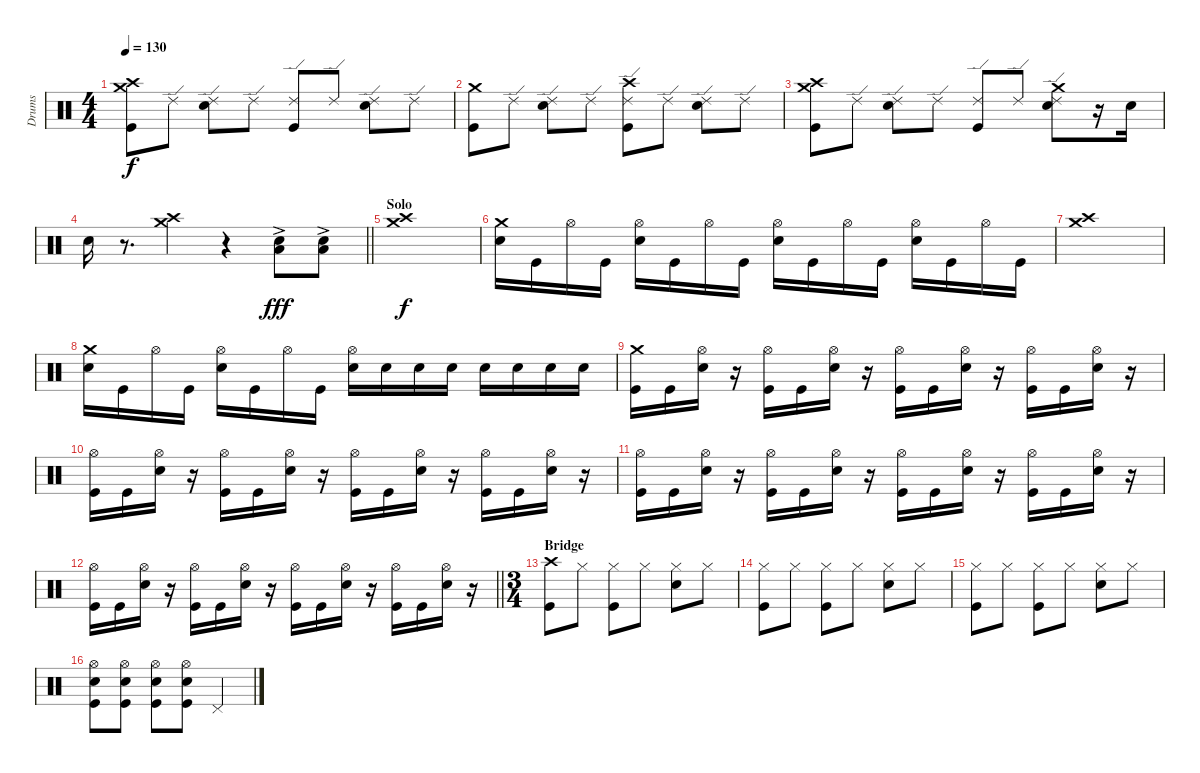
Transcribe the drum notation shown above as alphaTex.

\track ("Drums" "Drums") {instrument percussion}
\staff {score}
\articulation defaults
\ts (4 4)
\tempo 130
\clef neutral
\ks c
("Crash high (hit)" "Crash medium (hit)" "Kick (hit)").8{dy f} "Ride (edge) 2".8 ("Ride (edge) 2" "Snare (hit) 2").8 "Ride (edge) 2".8 ("Ride (edge) 2" "Kick (hit)").8 "Ride (edge) 2".8 ("Ride (edge) 2" "Snare (hit) 2").8 "Ride (edge) 2".8 |
("Crash medium (hit)" "Kick (hit)").8 "Ride (edge) 2".8 ("Ride (edge) 2" "Snare (hit) 2").8 "Ride (edge) 2".8 ("Crash high (hit)" "Ride (edge) 2" "Kick (hit)").8 "Ride (edge) 2".8 ("Ride (edge) 2" "Snare (hit) 2").8 "Ride (edge) 2".8 |
("Crash high (hit)" "Crash medium (hit)" "Kick (hit)").8 "Ride (edge) 2".8 ("Ride (edge) 2" "Snare (hit) 2").8 "Ride (edge) 2".8 ("Ride (edge) 2" "Kick (hit)").8 "Ride (edge) 2".8 ("Crash medium (hit)" "Ride (edge) 2" "Snare (hit) 2").8 r.16 "Snare (hit) 2".16 |
\barLineRight lightlight "Snare (hit) 2".16
r.8{d} ("Crash high (hit)" "Crash medium (hit)").4 r.4 ("Low Floor Tom (hit)"{ac} "Snare (hit) 2").8{dy fff} ("Low Floor Tom (hit)"{ac} "Snare (hit) 2").8 |
\section ("" "Solo")
("Crash high (hit)" "Crash medium (hit)").1{dy f} |
("Crash medium (hit)" "Snare (hit) 2").16 "Kick (hit)".16 "Hi-Hat (open)".16 "Kick (hit)".16 ("Hi-Hat (open)" "Snare (hit) 2").16 "Kick (hit)".16 "Hi-Hat (open)".16 "Kick (hit)".16 ("Hi-Hat (open)" "Snare (hit) 2").16 "Kick (hit)".16 "Hi-Hat (open)".16 "Kick (hit)".16 ("Hi-Hat (open)" "Snare (hit) 2").16 "Kick (hit)".16 "Hi-Hat (open)".16 "Kick (hit)".16 |
("Crash high (hit)" "Crash medium (hit)").1 |
("Crash medium (hit)" "Snare (hit) 2").16 "Kick (hit)".16 "Hi-Hat (open)".16 "Kick (hit)".16 ("Hi-Hat (open)" "Snare (hit) 2").16 "Kick (hit)".16 "Hi-Hat (open)".16 "Kick (hit)".16 ("Hi-Hat (open)" "Snare (hit) 2").16 "Snare (hit) 2".16 "Snare (hit) 2".16 "Snare (hit) 2".16 "Snare (hit) 2".16 "Snare (hit) 2".16 "Snare (hit) 2".16 "Snare (hit) 2".16 |
("Crash medium (hit)" "Kick (hit)").16 "Kick (hit)".16 ("Hi-Hat (open)" "Snare (hit) 2").16 r.16 ("Hi-Hat (open)" "Kick (hit)").16 "Kick (hit)".16 ("Hi-Hat (open)" "Snare (hit) 2").16 r.16 ("Hi-Hat (open)" "Kick (hit)").16 "Kick (hit)".16 ("Hi-Hat (open)" "Snare (hit) 2").16 r.16 ("Hi-Hat (open)" "Kick (hit)").16 "Kick (hit)".16 ("Hi-Hat (open)" "Snare (hit) 2").16 r.16 |
("Hi-Hat (open)" "Kick (hit)").16 "Kick (hit)".16 ("Hi-Hat (open)" "Snare (hit) 2").16 r.16 ("Hi-Hat (open)" "Kick (hit)").16 "Kick (hit)".16 ("Hi-Hat (open)" "Snare (hit) 2").16 r.16 ("Hi-Hat (open)" "Kick (hit)").16 "Kick (hit)".16 ("Hi-Hat (open)" "Snare (hit) 2").16 r.16 ("Hi-Hat (open)" "Kick (hit)").16 "Kick (hit)".16 ("Hi-Hat (open)" "Snare (hit) 2").16 r.16 |
("Hi-Hat (open)" "Kick (hit)").16 "Kick (hit)".16 ("Hi-Hat (open)" "Snare (hit) 2").16 r.16 ("Hi-Hat (open)" "Kick (hit)").16 "Kick (hit)".16 ("Hi-Hat (open)" "Snare (hit) 2").16 r.16 ("Hi-Hat (open)" "Kick (hit)").16 "Kick (hit)".16 ("Hi-Hat (open)" "Snare (hit) 2").16 r.16 ("Hi-Hat (open)" "Kick (hit)").16 "Kick (hit)".16 ("Hi-Hat (open)" "Snare (hit) 2").16 r.16 |
\barLineRight lightlight
("Hi-Hat (open)" "Kick (hit)").16 "Kick (hit)".16 ("Hi-Hat (open)" "Snare (hit) 2").16 r.16 ("Hi-Hat (open)" "Kick (hit)").16 "Kick (hit)".16 ("Hi-Hat (open)" "Snare (hit) 2").16 r.16 ("Hi-Hat (open)" "Kick (hit)").16 "Kick (hit)".16 ("Hi-Hat (open)" "Snare (hit) 2").16 r.16 ("Hi-Hat (open)" "Kick (hit)").16 "Kick (hit)".16 ("Hi-Hat (open)" "Snare (hit) 2").16 r.16 |
\ts (3 4)
\section ("" "Bridge")
("Crash high (hit)" "Kick (hit)").8 "Hi-Hat (closed)".8 ("Hi-Hat (closed)" "Kick (hit)").8 "Hi-Hat (closed)".8 ("Hi-Hat (closed)" "Snare (hit) 2").8 "Hi-Hat (closed)".8 |
("Hi-Hat (closed)" "Kick (hit)").8 "Hi-Hat (closed)".8 ("Hi-Hat (closed)" "Kick (hit)").8 "Hi-Hat (closed)".8 ("Hi-Hat (closed)" "Snare (hit) 2").8 "Hi-Hat (closed)".8 |
("Hi-Hat (closed)" "Kick (hit)").8 "Hi-Hat (closed)".8 ("Hi-Hat (closed)" "Kick (hit)").8 "Hi-Hat (closed)".8 ("Hi-Hat (closed)" "Snare (hit) 2").8 "Hi-Hat (closed)".8 |
("Hi-Hat (open)" "Snare (hit) 2" "Kick (hit)").8 ("Hi-Hat (open)" "Snare (hit) 2" "Kick (hit)").8 ("Hi-Hat (open)" "Snare (hit) 2" "Kick (hit)").8 ("Hi-Hat (open)" "Snare (hit) 2" "Kick (hit)").8 "Pedal Hi-Hat (hit)".4
